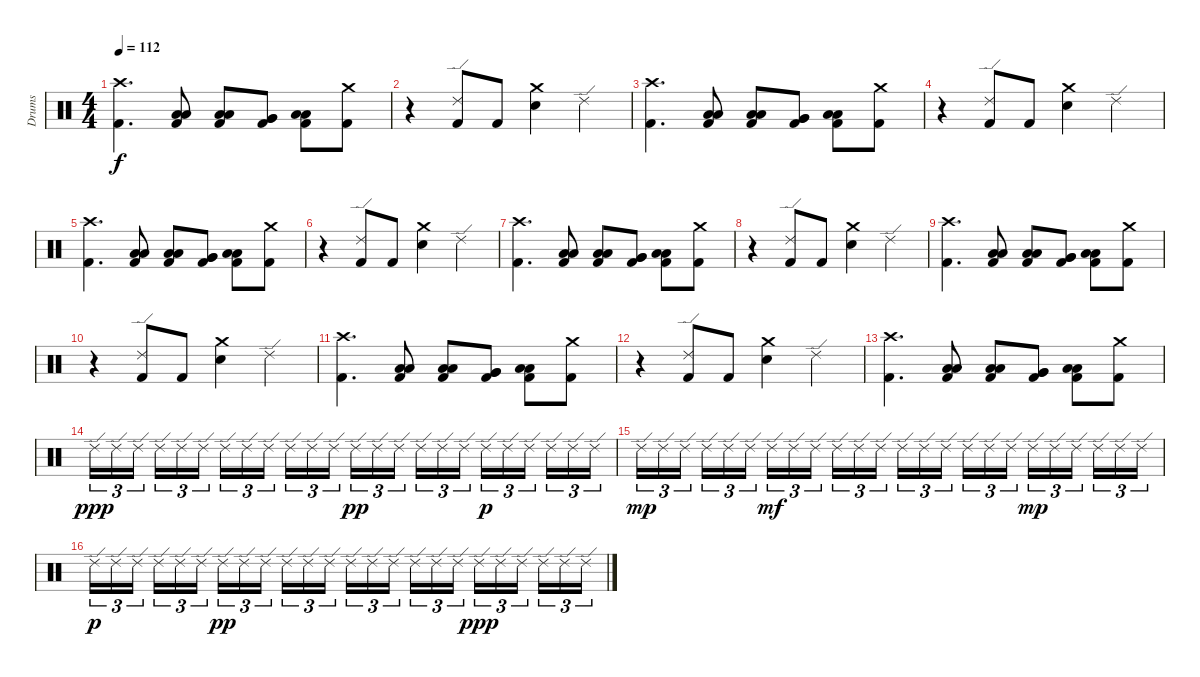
\track ("Drums" "Drums") {instrument percussion}
\staff {score}
\articulation defaults
\ts (4 4)
\tempo 112
\clef neutral
\ks c
("Crash high (hit)" "Kick (hit) 2").4{d dy f} ("Low Tom (hit)" "Low Tom (hit)" "Kick (hit) 2").8{bu 30} ("Low Tom (hit)" "Low Tom (hit)" "Kick (hit) 2").8{bu 30} ("Very Low Tom (hit)" "Very Low Tom (hit)" "Kick (hit) 2").8{bu 30} ("Low Floor Tom (hit)" "Low Floor Tom (hit)" "Kick (hit) 2").8{bu 30} ("Crash medium (hit)" "Kick (hit) 2").8 |
r.4 ("Ride (edge) 2" "Kick (hit) 2").8 "Kick (hit) 2".8 ("Crash medium (hit)" "Electric Snare (hit)").4 "Ride (edge) 2".4 |
("Crash high (hit)" "Kick (hit) 2").4{d} ("Low Tom (hit)" "Low Tom (hit)" "Kick (hit) 2").8{bu 30} ("Low Tom (hit)" "Low Tom (hit)" "Kick (hit) 2").8{bu 30} ("Very Low Tom (hit)" "Very Low Tom (hit)" "Kick (hit) 2").8{bu 30} ("Low Floor Tom (hit)" "Low Floor Tom (hit)" "Kick (hit) 2").8{bu 30} ("Crash medium (hit)" "Kick (hit) 2").8 |
r.4 ("Ride (edge) 2" "Kick (hit) 2").8 "Kick (hit) 2".8 ("Crash medium (hit)" "Electric Snare (hit)").4 "Ride (edge) 2".4 |
("Crash high (hit)" "Kick (hit) 2").4{d} ("Low Tom (hit)" "Low Tom (hit)" "Kick (hit) 2").8{bu 30} ("Low Tom (hit)" "Low Tom (hit)" "Kick (hit) 2").8{bu 30} ("Very Low Tom (hit)" "Very Low Tom (hit)" "Kick (hit) 2").8{bu 30} ("Low Floor Tom (hit)" "Low Floor Tom (hit)" "Kick (hit) 2").8{bu 30} ("Crash medium (hit)" "Kick (hit) 2").8 |
r.4 ("Ride (edge) 2" "Kick (hit) 2").8 "Kick (hit) 2".8 ("Crash medium (hit)" "Electric Snare (hit)").4 "Ride (edge) 2".4 |
("Crash high (hit)" "Kick (hit) 2").4{d} ("Low Tom (hit)" "Low Tom (hit)" "Kick (hit) 2").8{bu 30} ("Low Tom (hit)" "Low Tom (hit)" "Kick (hit) 2").8{bu 30} ("Very Low Tom (hit)" "Very Low Tom (hit)" "Kick (hit) 2").8{bu 30} ("Low Floor Tom (hit)" "Low Floor Tom (hit)" "Kick (hit) 2").8{bu 30} ("Crash medium (hit)" "Kick (hit) 2").8 |
r.4 ("Ride (edge) 2" "Kick (hit) 2").8 "Kick (hit) 2".8 ("Crash medium (hit)" "Electric Snare (hit)").4 "Ride (edge) 2".4 |
("Crash high (hit)" "Kick (hit) 2").4{d} ("Low Tom (hit)" "Low Tom (hit)" "Kick (hit) 2").8{bu 30} ("Low Tom (hit)" "Low Tom (hit)" "Kick (hit) 2").8{bu 30} ("Very Low Tom (hit)" "Very Low Tom (hit)" "Kick (hit) 2").8{bu 30} ("Low Floor Tom (hit)" "Low Floor Tom (hit)" "Kick (hit) 2").8{bu 30} ("Crash medium (hit)" "Kick (hit) 2").8 |
r.4 ("Ride (edge) 2" "Kick (hit) 2").8 "Kick (hit) 2".8 ("Crash medium (hit)" "Electric Snare (hit)").4 "Ride (edge) 2".4 |
("Crash high (hit)" "Kick (hit) 2").4{d} ("Low Tom (hit)" "Low Tom (hit)" "Kick (hit) 2").8{bu 30} ("Low Tom (hit)" "Low Tom (hit)" "Kick (hit) 2").8{bu 30} ("Very Low Tom (hit)" "Very Low Tom (hit)" "Kick (hit) 2").8{bu 30} ("Low Floor Tom (hit)" "Low Floor Tom (hit)" "Kick (hit) 2").8{bu 30} ("Crash medium (hit)" "Kick (hit) 2").8 |
r.4 ("Ride (edge) 2" "Kick (hit) 2").8 "Kick (hit) 2".8 ("Crash medium (hit)" "Electric Snare (hit)").4 "Ride (edge) 2".4 |
("Crash high (hit)" "Kick (hit) 2").4{d} ("Low Tom (hit)" "Low Tom (hit)" "Kick (hit) 2").8{bu 30} ("Low Tom (hit)" "Low Tom (hit)" "Kick (hit) 2").8{bu 30} ("Very Low Tom (hit)" "Very Low Tom (hit)" "Kick (hit) 2").8{bu 30} ("Low Floor Tom (hit)" "Low Floor Tom (hit)" "Kick (hit) 2").8{bu 30} ("Crash medium (hit)" "Kick (hit) 2").8 |
"Ride (edge) 2".16{tu (3 2) dy ppp} "Ride (edge) 2".16{tu (3 2)} "Ride (edge) 2".16{tu (3 2) beam splitsecondary} "Ride (edge) 2".16{tu (3 2)} "Ride (edge) 2".16{tu (3 2)} "Ride (edge) 2".16{tu (3 2)} "Ride (edge) 2".16{tu (3 2)} "Ride (edge) 2".16{tu (3 2)} "Ride (edge) 2".16{tu (3 2) beam splitsecondary} "Ride (edge) 2".16{tu (3 2)} "Ride (edge) 2".16{tu (3 2)} "Ride (edge) 2".16{tu (3 2)} "Ride (edge) 2".16{tu (3 2) dy pp} "Ride (edge) 2".16{tu (3 2)} "Ride (edge) 2".16{tu (3 2) beam splitsecondary} "Ride (edge) 2".16{tu (3 2)} "Ride (edge) 2".16{tu (3 2)} "Ride (edge) 2".16{tu (3 2)} "Ride (edge) 2".16{tu (3 2) dy p} "Ride (edge) 2".16{tu (3 2)} "Ride (edge) 2".16{tu (3 2) beam splitsecondary} "Ride (edge) 2".16{tu (3 2)} "Ride (edge) 2".16{tu (3 2)} "Ride (edge) 2".16{tu (3 2)} |
"Ride (edge) 2".16{tu (3 2) dy mp} "Ride (edge) 2".16{tu (3 2)} "Ride (edge) 2".16{tu (3 2) beam splitsecondary} "Ride (edge) 2".16{tu (3 2)} "Ride (edge) 2".16{tu (3 2)} "Ride (edge) 2".16{tu (3 2)} "Ride (edge) 2".16{tu (3 2) dy mf} "Ride (edge) 2".16{tu (3 2)} "Ride (edge) 2".16{tu (3 2) beam splitsecondary} "Ride (edge) 2".16{tu (3 2)} "Ride (edge) 2".16{tu (3 2)} "Ride (edge) 2".16{tu (3 2)} "Ride (edge) 2".16{tu (3 2)} "Ride (edge) 2".16{tu (3 2)} "Ride (edge) 2".16{tu (3 2) beam splitsecondary} "Ride (edge) 2".16{tu (3 2)} "Ride (edge) 2".16{tu (3 2)} "Ride (edge) 2".16{tu (3 2)} "Ride (edge) 2".16{tu (3 2) dy mp} "Ride (edge) 2".16{tu (3 2)} "Ride (edge) 2".16{tu (3 2) beam splitsecondary} "Ride (edge) 2".16{tu (3 2)} "Ride (edge) 2".16{tu (3 2)} "Ride (edge) 2".16{tu (3 2)} |
"Ride (edge) 2".16{tu (3 2) dy p} "Ride (edge) 2".16{tu (3 2)} "Ride (edge) 2".16{tu (3 2) beam splitsecondary} "Ride (edge) 2".16{tu (3 2)} "Ride (edge) 2".16{tu (3 2)} "Ride (edge) 2".16{tu (3 2)} "Ride (edge) 2".16{tu (3 2) dy pp} "Ride (edge) 2".16{tu (3 2)} "Ride (edge) 2".16{tu (3 2) beam splitsecondary} "Ride (edge) 2".16{tu (3 2)} "Ride (edge) 2".16{tu (3 2)} "Ride (edge) 2".16{tu (3 2)} "Ride (edge) 2".16{tu (3 2)} "Ride (edge) 2".16{tu (3 2)} "Ride (edge) 2".16{tu (3 2) beam splitsecondary} "Ride (edge) 2".16{tu (3 2)} "Ride (edge) 2".16{tu (3 2)} "Ride (edge) 2".16{tu (3 2)} "Ride (edge) 2".16{tu (3 2) dy ppp} "Ride (edge) 2".16{tu (3 2)} "Ride (edge) 2".16{tu (3 2) beam splitsecondary} "Ride (edge) 2".16{tu (3 2)} "Ride (edge) 2".16{tu (3 2)} "Ride (edge) 2".16{tu (3 2)}
